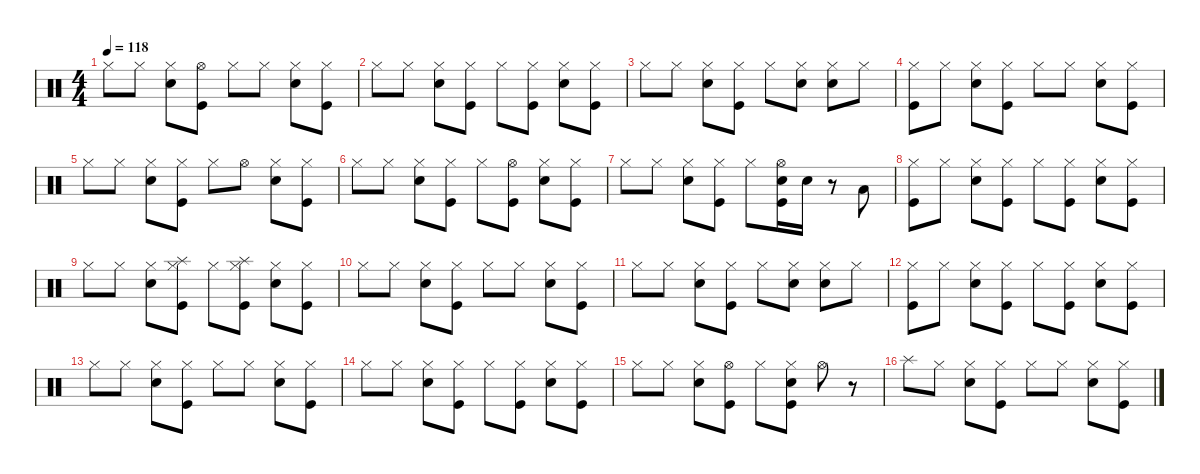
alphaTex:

\defaultSystemsLayout 4
\hideDynamics
\bracketExtendMode nobrackets
\singleTrackTrackNamePolicy hidden
\multiTrackTrackNamePolicy hidden
\firstSystemTrackNameMode fullname
\otherSystemsTrackNameOrientation horizontal
\track ("Drums" "drm.") {instrument percussion}
\staff {score}
\articulation defaults
\ts (4 4)
\tempo 118
\clef neutral
\ks c "Hi-Hat (closed)".8{dy f beam Down} "Hi-Hat (closed)".8{beam Down}
("Hi-Hat (closed)" "Snare (hit) 2").8{beam Down} ("Hi-Hat (open)" "Kick (hit)").8{beam Down} "Hi-Hat (closed)".8{beam Down} "Hi-Hat (closed)".8{beam Down} ("Hi-Hat (closed)" "Snare (hit) 2").8{beam Down} ("Hi-Hat (closed)" "Kick (hit)").8{beam Down} |
"Hi-Hat (closed)".8{beam Down} "Hi-Hat (closed)".8{beam Down} ("Hi-Hat (closed)" "Snare (hit) 2").8{beam Down} ("Hi-Hat (closed)" "Kick (hit)").8{beam Down} "Hi-Hat (closed)".8{beam Down} ("Hi-Hat (closed)" "Kick (hit)").8{beam Down} ("Hi-Hat (closed)" "Snare (hit) 2").8{beam Down} ("Hi-Hat (closed)" "Kick (hit)").8{beam Down} |
"Hi-Hat (closed)".8{beam Down} "Hi-Hat (closed)".8{beam Down} ("Hi-Hat (closed)" "Snare (hit) 2").8{beam Down} ("Hi-Hat (closed)" "Kick (hit)").8{beam Down} "Hi-Hat (closed)".8{beam Down} ("Hi-Hat (closed)" "Snare (hit) 2").8{beam Down} ("Hi-Hat (closed)" "Snare (hit) 2").8{beam Down} "Hi-Hat (closed)".8{beam Down} |
("Hi-Hat (closed)" "Kick (hit)").8{beam Down} "Hi-Hat (closed)".8{beam Down} ("Hi-Hat (closed)" "Snare (hit) 2").8{beam Down} ("Hi-Hat (closed)" "Kick (hit)").8{beam Down} "Hi-Hat (closed)".8{beam Down} "Hi-Hat (closed)".8{dy fff beam Down} ("Hi-Hat (closed)" "Snare (hit) 2").8{dy f beam Down} ("Hi-Hat (closed)" "Kick (hit)").8{beam Down} |
"Hi-Hat (closed)".8{beam Down} "Hi-Hat (closed)".8{beam Down} ("Hi-Hat (closed)" "Snare (hit) 2").8{beam Down} ("Hi-Hat (closed)" "Kick (hit)").8{beam Down} "Hi-Hat (closed)".8{beam Down} "Hi-Hat (open)".8{dy fff beam Down} ("Hi-Hat (closed)" "Snare (hit) 2").8{dy f beam Down} ("Hi-Hat (closed)" "Kick (hit)").8{beam Down} |
"Hi-Hat (closed)".8{beam Down} "Hi-Hat (closed)".8{beam Down} ("Hi-Hat (closed)" "Snare (hit) 2").8{beam Down} ("Hi-Hat (closed)" "Kick (hit)").8{beam Down} "Hi-Hat (closed)".8{beam Down} ("Hi-Hat (open)" "Kick (hit)").8{dy fff beam Down} ("Hi-Hat (closed)" "Snare (hit) 2").8{dy f beam Down} ("Hi-Hat (closed)" "Kick (hit)").8{beam Down} |
"Hi-Hat (closed)".8{beam Down} "Hi-Hat (closed)".8{beam Down} ("Hi-Hat (closed)" "Snare (hit) 2").8{beam Down} ("Hi-Hat (closed)" "Kick (hit)").8{beam Down} "Hi-Hat (closed)".8{beam Down} ("Hi-Hat (open)" "Snare (hit) 2" "Kick (hit)").16{beam Down} "Snare (hit) 2".16{beam Down} r.8{beam Down} "Low Floor Tom (hit)".8{beam Up} |
("Hi-Hat (closed)" "Kick (hit)").8{beam Down} "Hi-Hat (closed)".8{beam Down} ("Hi-Hat (closed)" "Snare (hit) 2").8{beam Down} ("Hi-Hat (closed)" "Kick (hit)").8{beam Down} "Hi-Hat (closed)".8{beam Down} ("Hi-Hat (closed)" "Kick (hit)").8{beam Down} ("Hi-Hat (closed)" "Snare (hit) 2").8{beam Down} ("Hi-Hat (closed)" "Kick (hit)").8{beam Down} |
"Hi-Hat (closed)".8{beam Down} "Hi-Hat (closed)".8{beam Down} ("Hi-Hat (closed)" "Snare (hit) 2").8{beam Down} ("Hi-Hat (closed)" "Splash (hit)" "Kick (hit)").8{beam Down} "Hi-Hat (closed)".8{beam Down} ("Hi-Hat (closed)" "Splash (hit)" "Kick (hit)").8{beam Down} ("Hi-Hat (closed)" "Snare (hit) 2").8{beam Down} ("Hi-Hat (closed)" "Kick (hit)").8{beam Down} |
"Hi-Hat (closed)".8{beam Down} "Hi-Hat (closed)".8{beam Down} ("Hi-Hat (closed)" "Snare (hit) 2").8{beam Down} ("Hi-Hat (closed)" "Kick (hit)").8{beam Down} "Hi-Hat (closed)".8{beam Down} "Hi-Hat (closed)".8{dy fff beam Down} ("Hi-Hat (closed)" "Snare (hit) 2").8{dy f beam Down} ("Hi-Hat (closed)" "Kick (hit)").8{beam Down} |
"Hi-Hat (closed)".8{beam Down} "Hi-Hat (closed)".8{beam Down} ("Hi-Hat (closed)" "Snare (hit) 2").8{beam Down} ("Hi-Hat (closed)" "Kick (hit)").8{beam Down} "Hi-Hat (closed)".8{beam Down} ("Hi-Hat (closed)" "Snare (hit) 2").8{beam Down} ("Hi-Hat (closed)" "Snare (hit) 2").8{beam Down} "Hi-Hat (closed)".8{beam Down} |
("Hi-Hat (closed)" "Kick (hit)").8{beam Down} "Hi-Hat (closed)".8{beam Down} ("Hi-Hat (closed)" "Snare (hit) 2").8{beam Down} ("Hi-Hat (closed)" "Kick (hit)").8{beam Down} "Hi-Hat (closed)".8{beam Down} ("Hi-Hat (closed)" "Kick (hit)").8{beam Down} ("Hi-Hat (closed)" "Snare (hit) 2").8{beam Down} ("Hi-Hat (closed)" "Kick (hit)").8{beam Down} |
"Hi-Hat (closed)".8{beam Down} "Hi-Hat (closed)".8{beam Down} ("Hi-Hat (closed)" "Snare (hit) 2").8{beam Down} ("Hi-Hat (closed)" "Kick (hit)").8{beam Down} "Hi-Hat (closed)".8{beam Down} "Hi-Hat (closed)".8{beam Down} ("Hi-Hat (closed)" "Snare (hit) 2").8{beam Down} ("Hi-Hat (closed)" "Kick (hit)").8{beam Down} |
"Hi-Hat (closed)".8{beam Down} "Hi-Hat (closed)".8{beam Down} ("Hi-Hat (closed)" "Snare (hit) 2").8{beam Down} ("Hi-Hat (closed)" "Kick (hit)").8{beam Down} "Hi-Hat (closed)".8{beam Down} ("Hi-Hat (closed)" "Kick (hit)").8{beam Down} ("Hi-Hat (closed)" "Snare (hit) 2").8{beam Down} ("Hi-Hat (closed)" "Kick (hit)").8{beam Down} |
"Hi-Hat (closed)".8{beam Down} "Hi-Hat (closed)".8{beam Down} ("Hi-Hat (closed)" "Snare (hit) 2").8{beam Down} ("Hi-Hat (open)" "Kick (hit)").8{beam Down} "Hi-Hat (closed)".8{beam Down} ("Hi-Hat (closed)" "Snare (hit) 2" "Kick (hit)").8{beam Down} "Hi-Hat (open)".8{beam Down} r.8{beam Down} |
"Splash (hit)".8{beam Down} "Hi-Hat (closed)".8{beam Down} ("Hi-Hat (closed)" "Snare (hit) 2").8{beam Down} ("Hi-Hat (closed)" "Kick (hit)").8{beam Down} "Hi-Hat (closed)".8{beam Down} "Hi-Hat (closed)".8{beam Down} ("Hi-Hat (closed)" "Snare (hit) 2").8{beam Down} ("Hi-Hat (closed)" "Kick (hit)").8{beam Down}
